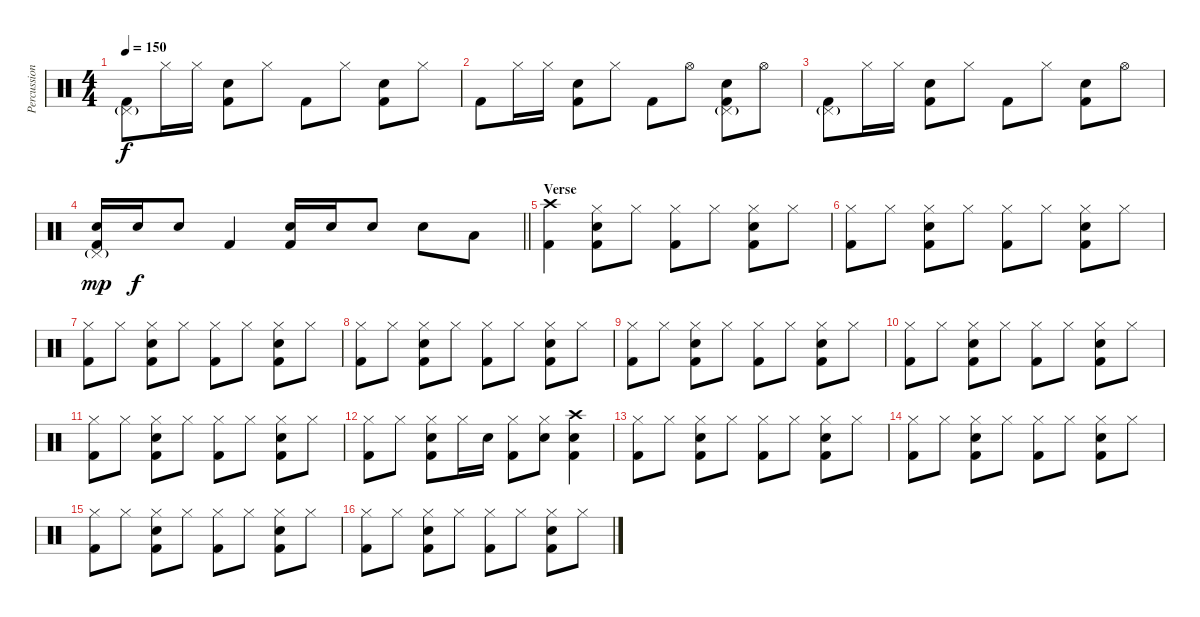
\track ("Percussion" "Percussion") {instrument percussion}
\staff {score}
\articulation defaults
\ts (4 4)
\tempo 150
\clef neutral
\ks c
("Pedal Hi-Hat (hit)"{g} "Kick (hit) 2").8{dy f} "Hi-Hat (closed)".16 "Hi-Hat (closed)".16 ("Electric Snare (hit)" "Kick (hit) 2").8 "Hi-Hat (closed)".8 "Kick (hit) 2".8 "Hi-Hat (closed)".8 ("Electric Snare (hit)" "Kick (hit) 2").8 "Hi-Hat (closed)".8 |
"Kick (hit) 2".8 "Hi-Hat (closed)".16 "Hi-Hat (closed)".16 ("Electric Snare (hit)" "Kick (hit) 2").8 "Hi-Hat (closed)".8 "Kick (hit) 2".8 "Hi-Hat (open)".8 ("Pedal Hi-Hat (hit)"{g} "Electric Snare (hit)" "Kick (hit) 2").8 "Hi-Hat (open)".8 |
("Pedal Hi-Hat (hit)"{g} "Kick (hit) 2").8 "Hi-Hat (closed)".16 "Hi-Hat (closed)".16 ("Electric Snare (hit)" "Kick (hit) 2").8 "Hi-Hat (closed)".8 "Kick (hit) 2".8 "Hi-Hat (closed)".8 ("Electric Snare (hit)" "Kick (hit) 2").8 "Hi-Hat (open)".8 |
\barLineRight lightlight
("Pedal Hi-Hat (hit)"{g} "Electric Snare (hit)" "Kick (hit) 2").16{dy mp} "Electric Snare (hit)".16{dy f} "Electric Snare (hit)".8 "Kick (hit) 2".4 ("Electric Snare (hit)" "Kick (hit) 2").16 "Electric Snare (hit)".16 "Electric Snare (hit)".8 "Electric Snare (hit)".8 "Low Tom (hit)".8 |
\section ("" "Verse")
("Crash high (hit)" "Kick (hit) 2").4 ("Hi-Hat (closed)" "Electric Snare (hit)" "Kick (hit) 2").8 "Hi-Hat (closed)".8 ("Hi-Hat (closed)" "Kick (hit) 2").8 "Hi-Hat (closed)".8 ("Hi-Hat (closed)" "Electric Snare (hit)" "Kick (hit) 2").8 "Hi-Hat (closed)".8 |
("Hi-Hat (closed)" "Kick (hit) 2").8 "Hi-Hat (closed)".8 ("Hi-Hat (closed)" "Electric Snare (hit)" "Kick (hit) 2").8 "Hi-Hat (closed)".8 ("Hi-Hat (closed)" "Kick (hit) 2").8 "Hi-Hat (closed)".8 ("Hi-Hat (closed)" "Electric Snare (hit)" "Kick (hit) 2").8 "Hi-Hat (closed)".8 |
("Hi-Hat (closed)" "Kick (hit) 2").8 "Hi-Hat (closed)".8 ("Hi-Hat (closed)" "Electric Snare (hit)" "Kick (hit) 2").8 "Hi-Hat (closed)".8 ("Hi-Hat (closed)" "Kick (hit) 2").8 "Hi-Hat (closed)".8 ("Hi-Hat (closed)" "Electric Snare (hit)" "Kick (hit) 2").8 "Hi-Hat (closed)".8 |
("Hi-Hat (closed)" "Kick (hit) 2").8 "Hi-Hat (closed)".8 ("Hi-Hat (closed)" "Electric Snare (hit)" "Kick (hit) 2").8 "Hi-Hat (closed)".8 ("Hi-Hat (closed)" "Kick (hit) 2").8 "Hi-Hat (closed)".8 ("Hi-Hat (closed)" "Electric Snare (hit)" "Kick (hit) 2").8 "Hi-Hat (closed)".8 |
("Hi-Hat (closed)" "Kick (hit) 2").8 "Hi-Hat (closed)".8 ("Hi-Hat (closed)" "Electric Snare (hit)" "Kick (hit) 2").8 "Hi-Hat (closed)".8 ("Hi-Hat (closed)" "Kick (hit) 2").8 "Hi-Hat (closed)".8 ("Hi-Hat (closed)" "Electric Snare (hit)" "Kick (hit) 2").8 "Hi-Hat (closed)".8 |
("Hi-Hat (closed)" "Kick (hit) 2").8 "Hi-Hat (closed)".8 ("Hi-Hat (closed)" "Electric Snare (hit)" "Kick (hit) 2").8 "Hi-Hat (closed)".8 ("Hi-Hat (closed)" "Kick (hit) 2").8 "Hi-Hat (closed)".8 ("Hi-Hat (closed)" "Electric Snare (hit)" "Kick (hit) 2").8 "Hi-Hat (closed)".8 |
("Hi-Hat (closed)" "Kick (hit) 2").8 "Hi-Hat (closed)".8 ("Hi-Hat (closed)" "Electric Snare (hit)" "Kick (hit) 2").8 "Hi-Hat (closed)".8 ("Hi-Hat (closed)" "Kick (hit) 2").8 "Hi-Hat (closed)".8 ("Hi-Hat (closed)" "Electric Snare (hit)" "Kick (hit) 2").8 "Hi-Hat (closed)".8 |
("Hi-Hat (closed)" "Kick (hit) 2").8 "Hi-Hat (closed)".8 ("Hi-Hat (closed)" "Electric Snare (hit)" "Kick (hit) 2").8 "Hi-Hat (closed)".16 "Electric Snare (hit)".16 ("Hi-Hat (closed)" "Kick (hit) 2").8 ("Hi-Hat (closed)" "Electric Snare (hit)").8 ("Crash high (hit)" "Electric Snare (hit)" "Kick (hit) 2").4 |
("Hi-Hat (closed)" "Kick (hit) 2").8 "Hi-Hat (closed)".8 ("Hi-Hat (closed)" "Electric Snare (hit)" "Kick (hit) 2").8 "Hi-Hat (closed)".8 ("Hi-Hat (closed)" "Kick (hit) 2").8 "Hi-Hat (closed)".8 ("Hi-Hat (closed)" "Electric Snare (hit)" "Kick (hit) 2").8 "Hi-Hat (closed)".8 |
("Hi-Hat (closed)" "Kick (hit) 2").8 "Hi-Hat (closed)".8 ("Hi-Hat (closed)" "Electric Snare (hit)" "Kick (hit) 2").8 "Hi-Hat (closed)".8 ("Hi-Hat (closed)" "Kick (hit) 2").8 "Hi-Hat (closed)".8 ("Hi-Hat (closed)" "Electric Snare (hit)" "Kick (hit) 2").8 "Hi-Hat (closed)".8 |
("Hi-Hat (closed)" "Kick (hit) 2").8 "Hi-Hat (closed)".8 ("Hi-Hat (closed)" "Electric Snare (hit)" "Kick (hit) 2").8 "Hi-Hat (closed)".8 ("Hi-Hat (closed)" "Kick (hit) 2").8 "Hi-Hat (closed)".8 ("Hi-Hat (closed)" "Electric Snare (hit)" "Kick (hit) 2").8 "Hi-Hat (closed)".8 |
("Hi-Hat (closed)" "Kick (hit) 2").8 "Hi-Hat (closed)".8 ("Hi-Hat (closed)" "Electric Snare (hit)" "Kick (hit) 2").8 "Hi-Hat (closed)".8 ("Hi-Hat (closed)" "Kick (hit) 2").8 "Hi-Hat (closed)".8 ("Hi-Hat (closed)" "Electric Snare (hit)" "Kick (hit) 2").8 "Hi-Hat (closed)".8
